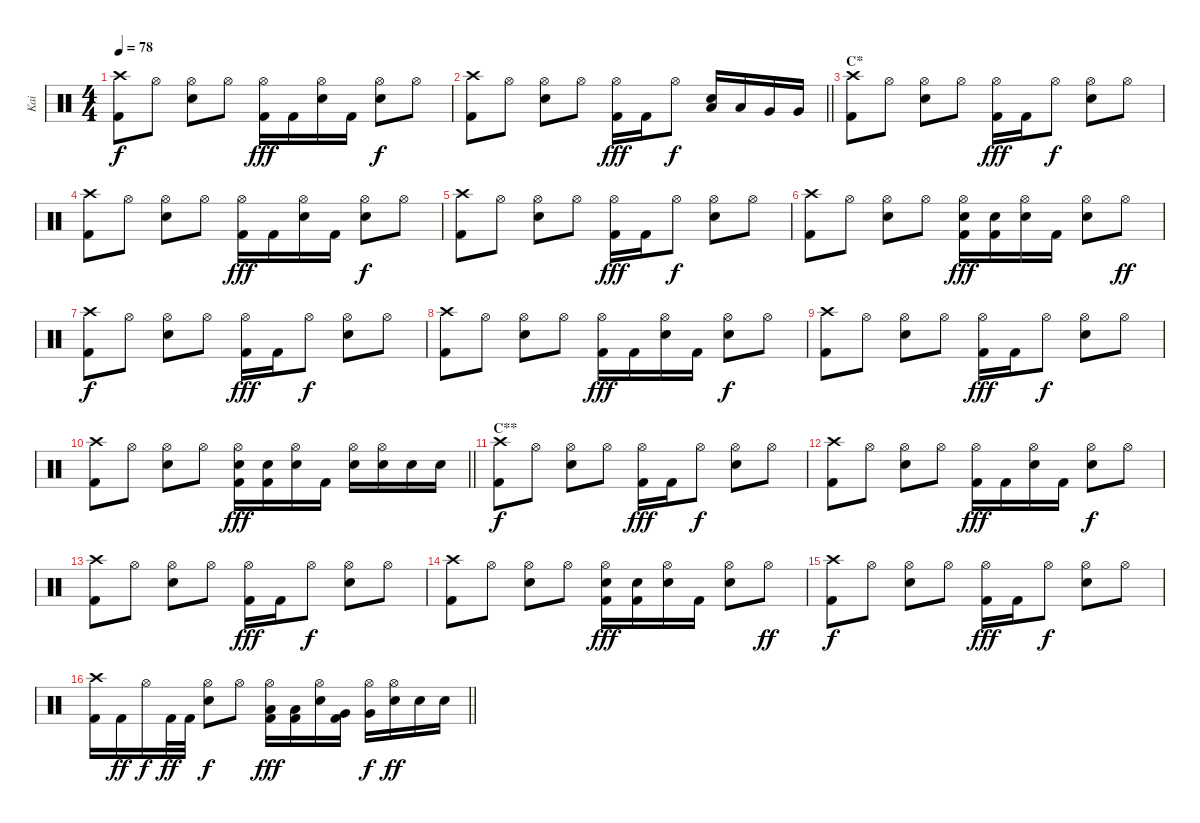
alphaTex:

\track ("Kai" "Kai") {instrument percussion}
\staff {score}
\articulation defaults
\ts (4 4)
\tempo 78
\clef neutral
\ks c
("Crash high (hit)" "Kick (hit) 2").8{dy f} "Hi-Hat (open)".8 ("Hi-Hat (open)" "Electric Snare (hit)").8 "Hi-Hat (open)".8 ("Hi-Hat (open)" "Kick (hit) 2").16{dy fff} "Kick (hit) 2".16 ("Hi-Hat (open)" "Electric Snare (hit)").16 "Kick (hit) 2".16 ("Hi-Hat (open)" "Electric Snare (hit)").8{dy f} "Hi-Hat (open)".8 |
\barLineRight lightlight
("Crash high (hit)" "Kick (hit) 2").8 "Hi-Hat (open)".8 ("Hi-Hat (open)" "Electric Snare (hit)").8 "Hi-Hat (open)".8 ("Hi-Hat (open)" "Kick (hit) 2").16{dy fff} "Kick (hit) 2".16 "Hi-Hat (open)".8{dy f} ("Low Tom (hit)" "Electric Snare (hit)").16 "Low Tom (hit)".16 "Very Low Tom (hit)".16 "Very Low Tom (hit)".16 |
\section ("" "C*")
("Crash high (hit)" "Kick (hit) 2").8 "Hi-Hat (open)".8 ("Hi-Hat (open)" "Electric Snare (hit)").8 "Hi-Hat (open)".8 ("Hi-Hat (open)" "Kick (hit) 2").16{dy fff} "Kick (hit) 2".16 "Hi-Hat (open)".8{dy f} ("Hi-Hat (open)" "Electric Snare (hit)").8 "Hi-Hat (open)".8 |
("Crash high (hit)" "Kick (hit) 2").8 "Hi-Hat (open)".8 ("Hi-Hat (open)" "Electric Snare (hit)").8 "Hi-Hat (open)".8 ("Hi-Hat (open)" "Kick (hit) 2").16{dy fff} "Kick (hit) 2".16 ("Hi-Hat (open)" "Electric Snare (hit)").16 "Kick (hit) 2".16 ("Hi-Hat (open)" "Electric Snare (hit)").8{dy f} "Hi-Hat (open)".8 |
("Crash high (hit)" "Kick (hit) 2").8 "Hi-Hat (open)".8 ("Hi-Hat (open)" "Electric Snare (hit)").8 "Hi-Hat (open)".8 ("Hi-Hat (open)" "Kick (hit) 2").16{dy fff} "Kick (hit) 2".16 "Hi-Hat (open)".8{dy f} ("Hi-Hat (open)" "Electric Snare (hit)").8 "Hi-Hat (open)".8 |
("Crash high (hit)" "Kick (hit) 2").8 "Hi-Hat (open)".8 ("Hi-Hat (open)" "Electric Snare (hit)").8 "Hi-Hat (open)".8 ("Hi-Hat (open)" "Electric Snare (hit)" "Kick (hit) 2").16{dy fff} ("Electric Snare (hit)" "Kick (hit) 2").16 ("Hi-Hat (open)" "Electric Snare (hit)").16 "Kick (hit) 2".16 ("Hi-Hat (open)" "Electric Snare (hit)").8 "Hi-Hat (open)".8{dy ff} |
("Crash high (hit)" "Kick (hit) 2").8{dy f} "Hi-Hat (open)".8 ("Hi-Hat (open)" "Electric Snare (hit)").8 "Hi-Hat (open)".8 ("Hi-Hat (open)" "Kick (hit) 2").16{dy fff} "Kick (hit) 2".16 "Hi-Hat (open)".8{dy f} ("Hi-Hat (open)" "Electric Snare (hit)").8 "Hi-Hat (open)".8 |
("Crash high (hit)" "Kick (hit) 2").8 "Hi-Hat (open)".8 ("Hi-Hat (open)" "Electric Snare (hit)").8 "Hi-Hat (open)".8 ("Hi-Hat (open)" "Kick (hit) 2").16{dy fff} "Kick (hit) 2".16 ("Hi-Hat (open)" "Electric Snare (hit)").16 "Kick (hit) 2".16 ("Hi-Hat (open)" "Electric Snare (hit)").8{dy f} "Hi-Hat (open)".8 |
("Crash high (hit)" "Kick (hit) 2").8 "Hi-Hat (open)".8 ("Hi-Hat (open)" "Electric Snare (hit)").8 "Hi-Hat (open)".8 ("Hi-Hat (open)" "Kick (hit) 2").16{dy fff} "Kick (hit) 2".16 "Hi-Hat (open)".8{dy f} ("Hi-Hat (open)" "Electric Snare (hit)").8 "Hi-Hat (open)".8 |
\barLineRight lightlight
("Crash high (hit)" "Kick (hit) 2").8 "Hi-Hat (open)".8 ("Hi-Hat (open)" "Electric Snare (hit)").8 "Hi-Hat (open)".8 ("Hi-Hat (open)" "Electric Snare (hit)" "Kick (hit) 2").16{dy fff} ("Electric Snare (hit)" "Kick (hit) 2").16 ("Hi-Hat (open)" "Electric Snare (hit)").16 "Kick (hit) 2".16 ("Hi-Hat (open)" "Electric Snare (hit)").16 ("Hi-Hat (open)" "Electric Snare (hit)").16 "Electric Snare (hit)".16 "Electric Snare (hit)".16 |
\section ("" "C**")
("Crash high (hit)" "Kick (hit) 2").8{dy f} "Hi-Hat (open)".8 ("Hi-Hat (open)" "Electric Snare (hit)").8 "Hi-Hat (open)".8 ("Hi-Hat (open)" "Kick (hit) 2").16{dy fff} "Kick (hit) 2".16 "Hi-Hat (open)".8{dy f} ("Hi-Hat (open)" "Electric Snare (hit)").8 "Hi-Hat (open)".8 |
("Crash high (hit)" "Kick (hit) 2").8 "Hi-Hat (open)".8 ("Hi-Hat (open)" "Electric Snare (hit)").8 "Hi-Hat (open)".8 ("Hi-Hat (open)" "Kick (hit) 2").16{dy fff} "Kick (hit) 2".16 ("Hi-Hat (open)" "Electric Snare (hit)").16 "Kick (hit) 2".16 ("Hi-Hat (open)" "Electric Snare (hit)").8{dy f} "Hi-Hat (open)".8 |
("Crash high (hit)" "Kick (hit) 2").8 "Hi-Hat (open)".8 ("Hi-Hat (open)" "Electric Snare (hit)").8 "Hi-Hat (open)".8 ("Hi-Hat (open)" "Kick (hit) 2").16{dy fff} "Kick (hit) 2".16 "Hi-Hat (open)".8{dy f} ("Hi-Hat (open)" "Electric Snare (hit)").8 "Hi-Hat (open)".8 |
("Crash high (hit)" "Kick (hit) 2").8 "Hi-Hat (open)".8 ("Hi-Hat (open)" "Electric Snare (hit)").8 "Hi-Hat (open)".8 ("Hi-Hat (open)" "Electric Snare (hit)" "Kick (hit) 2").16{dy fff} ("Electric Snare (hit)" "Kick (hit) 2").16 ("Hi-Hat (open)" "Electric Snare (hit)").16 "Kick (hit) 2".16 ("Hi-Hat (open)" "Electric Snare (hit)").8 "Hi-Hat (open)".8{dy ff} |
("Crash high (hit)" "Kick (hit) 2").8{dy f} "Hi-Hat (open)".8 ("Hi-Hat (open)" "Electric Snare (hit)").8 "Hi-Hat (open)".8 ("Hi-Hat (open)" "Kick (hit) 2").16{dy fff} "Kick (hit) 2".16 "Hi-Hat (open)".8{dy f} ("Hi-Hat (open)" "Electric Snare (hit)").8 "Hi-Hat (open)".8 |
\barLineRight lightlight
("Crash high (hit)" "Kick (hit) 2").16 "Kick (hit) 2".16{dy ff} "Hi-Hat (open)".16{dy f} "Kick (hit) 2".32{dy ff} "Kick (hit) 2".32 ("Hi-Hat (open)" "Electric Snare (hit)").8{dy f} "Hi-Hat (open)".8 ("Hi-Hat (open)" "Low Tom (hit)" "Kick (hit) 2").16{dy fff} ("Low Tom (hit)" "Kick (hit) 2").16 ("Hi-Hat (open)" "Electric Snare (hit)").16 ("Very Low Tom (hit)" "Kick (hit) 2").16 ("Hi-Hat (open)" "Very Low Tom (hit)").16{dy f} ("Hi-Hat (open)" "Electric Snare (hit)").16{dy ff} "Electric Snare (hit)".16 "Electric Snare (hit)".16
